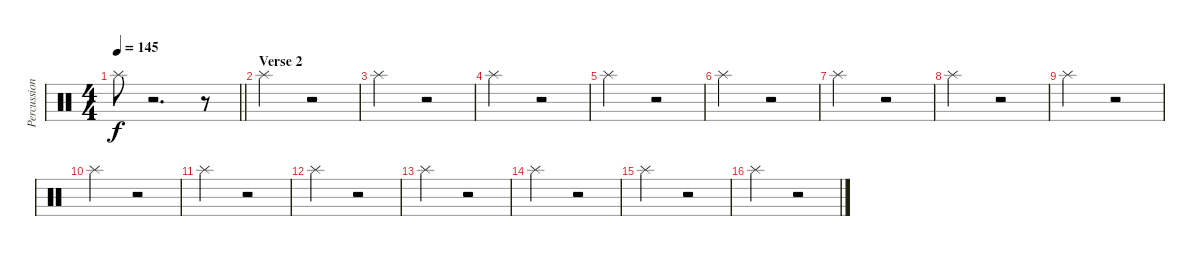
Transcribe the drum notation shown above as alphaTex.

\track ("Percussion 2" "Percussion") {instrument percussion}
\staff {score}
\articulation defaults
\ts (4 4)
\tempo 145
\clef neutral
\barLineRight lightlight
\ks c "Splash (hit)".8{dy f}
r.2{d} r.8 |
\section ("" "Verse 2")
"Splash (hit)".2 r.2 |
"Splash (hit)".2 r.2 |
"Splash (hit)".2 r.2 |
"Splash (hit)".2 r.2 |
"Splash (hit)".2 r.2 |
"Splash (hit)".2 r.2 |
"Splash (hit)".2 r.2 |
"Splash (hit)".2 r.2 |
"Splash (hit)".2 r.2 |
"Splash (hit)".2 r.2 |
"Splash (hit)".2 r.2 |
"Splash (hit)".2 r.2 |
"Splash (hit)".2 r.2 |
"Splash (hit)".2 r.2 |
"Splash (hit)".2 r.2
